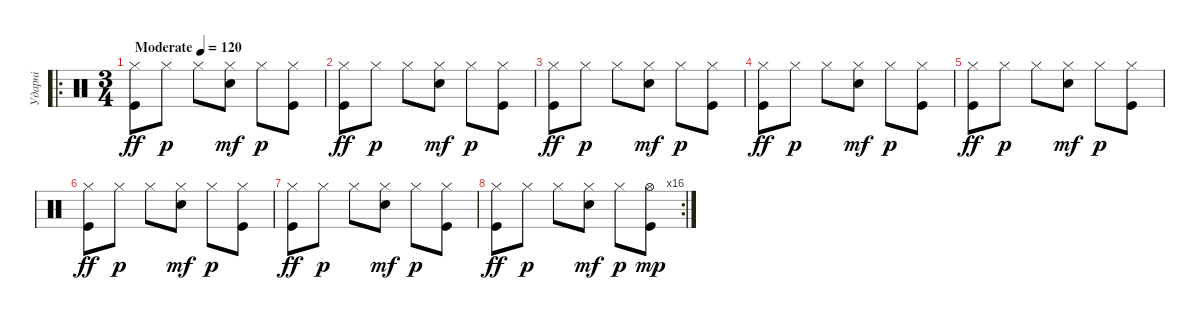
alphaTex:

\track ("Ударні" "Ударні") {instrument percussion}
\staff {score}
\articulation defaults
\ro
\ts (3 4)
\tempo (120 "Moderate")
\clef neutral
\ks c
("Hi-Hat (closed)" "Kick (hit)").8{dy ff} "Hi-Hat (closed)".8{dy p} "Hi-Hat (closed)".8 ("Hi-Hat (closed)" "Snare (hit) 2").8{dy mf} "Hi-Hat (closed)".8{dy p} ("Hi-Hat (closed)" "Kick (hit)").8 |
("Hi-Hat (closed)" "Kick (hit)").8{dy ff} "Hi-Hat (closed)".8{dy p} "Hi-Hat (closed)".8 ("Hi-Hat (closed)" "Snare (hit) 2").8{dy mf} "Hi-Hat (closed)".8{dy p} ("Hi-Hat (closed)" "Kick (hit)").8 |
("Hi-Hat (closed)" "Kick (hit)").8{dy ff} "Hi-Hat (closed)".8{dy p} "Hi-Hat (closed)".8 ("Hi-Hat (closed)" "Snare (hit) 2").8{dy mf} "Hi-Hat (closed)".8{dy p} ("Hi-Hat (closed)" "Kick (hit)").8 |
("Hi-Hat (closed)" "Kick (hit)").8{dy ff} "Hi-Hat (closed)".8{dy p} "Hi-Hat (closed)".8 ("Hi-Hat (closed)" "Snare (hit) 2").8{dy mf} "Hi-Hat (closed)".8{dy p} ("Hi-Hat (closed)" "Kick (hit)").8 |
("Hi-Hat (closed)" "Kick (hit)").8{dy ff} "Hi-Hat (closed)".8{dy p} "Hi-Hat (closed)".8 ("Hi-Hat (closed)" "Snare (hit) 2").8{dy mf} "Hi-Hat (closed)".8{dy p} ("Hi-Hat (closed)" "Kick (hit)").8 |
("Hi-Hat (closed)" "Kick (hit)").8{dy ff} "Hi-Hat (closed)".8{dy p} "Hi-Hat (closed)".8 ("Hi-Hat (closed)" "Snare (hit) 2").8{dy mf} "Hi-Hat (closed)".8{dy p} ("Hi-Hat (closed)" "Kick (hit)").8 |
("Hi-Hat (closed)" "Kick (hit)").8{dy ff} "Hi-Hat (closed)".8{dy p} "Hi-Hat (closed)".8 ("Hi-Hat (closed)" "Snare (hit) 2").8{dy mf} "Hi-Hat (closed)".8{dy p} ("Hi-Hat (closed)" "Kick (hit)").8 |
\rc 16
("Hi-Hat (closed)" "Kick (hit)").8{dy ff} "Hi-Hat (closed)".8{dy p} "Hi-Hat (closed)".8 ("Hi-Hat (closed)" "Snare (hit) 2").8{dy mf} "Hi-Hat (closed)".8{dy p} ("Hi-Hat (open)" "Kick (hit)").8{dy mp}
